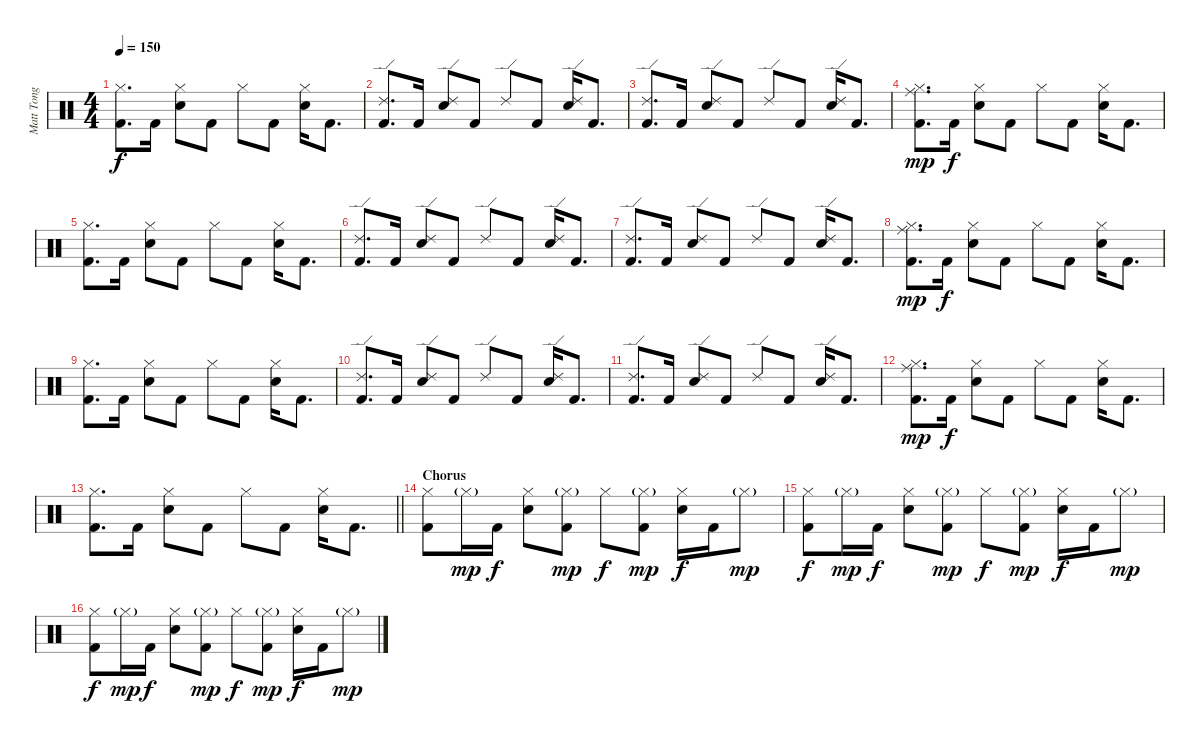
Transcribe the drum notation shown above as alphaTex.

\track ("Matt Tong" "Matt Tong") {instrument percussion}
\staff {score}
\articulation defaults
\ts (4 4)
\tempo 150
\clef neutral
\ks c
("Hi-Hat (closed)" "Kick (hit) 2").8{d dy f} "Kick (hit) 2".16 ("Hi-Hat (closed)" "Electric Snare (hit)").8 "Kick (hit) 2".8 "Hi-Hat (closed)".8 "Kick (hit) 2".8 ("Hi-Hat (closed)" "Electric Snare (hit)").16 "Kick (hit) 2".8{d} |
("Ride (edge) 2" "Kick (hit) 2").8{d} "Kick (hit) 2".16 ("Ride (edge) 2" "Electric Snare (hit)").8 "Kick (hit) 2".8 "Ride (edge) 2".8 "Kick (hit) 2".8 ("Ride (edge) 2" "Electric Snare (hit)").16 "Kick (hit) 2".8{d} |
("Ride (edge) 2" "Kick (hit) 2").8{d} "Kick (hit) 2".16 ("Ride (edge) 2" "Electric Snare (hit)").8 "Kick (hit) 2".8 "Ride (edge) 2".8 "Kick (hit) 2".8 ("Ride (edge) 2" "Electric Snare (hit)").16 "Kick (hit) 2".8{d} |
("Ride (middle)" "Hi-Hat (closed)" "Kick (hit) 2").8{d dy mp} "Kick (hit) 2".16{dy f} ("Hi-Hat (closed)" "Electric Snare (hit)").8 "Kick (hit) 2".8 "Hi-Hat (closed)".8 "Kick (hit) 2".8 ("Hi-Hat (closed)" "Electric Snare (hit)").16 "Kick (hit) 2".8{d} |
("Hi-Hat (closed)" "Kick (hit) 2").8{d} "Kick (hit) 2".16 ("Hi-Hat (closed)" "Electric Snare (hit)").8 "Kick (hit) 2".8 "Hi-Hat (closed)".8 "Kick (hit) 2".8 ("Hi-Hat (closed)" "Electric Snare (hit)").16 "Kick (hit) 2".8{d} |
("Ride (edge) 2" "Kick (hit) 2").8{d} "Kick (hit) 2".16 ("Ride (edge) 2" "Electric Snare (hit)").8 "Kick (hit) 2".8 "Ride (edge) 2".8 "Kick (hit) 2".8 ("Ride (edge) 2" "Electric Snare (hit)").16 "Kick (hit) 2".8{d} |
("Ride (edge) 2" "Kick (hit) 2").8{d} "Kick (hit) 2".16 ("Ride (edge) 2" "Electric Snare (hit)").8 "Kick (hit) 2".8 "Ride (edge) 2".8 "Kick (hit) 2".8 ("Ride (edge) 2" "Electric Snare (hit)").16 "Kick (hit) 2".8{d} |
("Ride (middle)" "Hi-Hat (closed)" "Kick (hit) 2").8{d dy mp} "Kick (hit) 2".16{dy f} ("Hi-Hat (closed)" "Electric Snare (hit)").8 "Kick (hit) 2".8 "Hi-Hat (closed)".8 "Kick (hit) 2".8 ("Hi-Hat (closed)" "Electric Snare (hit)").16 "Kick (hit) 2".8{d} |
("Hi-Hat (closed)" "Kick (hit) 2").8{d} "Kick (hit) 2".16 ("Hi-Hat (closed)" "Electric Snare (hit)").8 "Kick (hit) 2".8 "Hi-Hat (closed)".8 "Kick (hit) 2".8 ("Hi-Hat (closed)" "Electric Snare (hit)").16 "Kick (hit) 2".8{d} |
("Ride (edge) 2" "Kick (hit) 2").8{d} "Kick (hit) 2".16 ("Ride (edge) 2" "Electric Snare (hit)").8 "Kick (hit) 2".8 "Ride (edge) 2".8 "Kick (hit) 2".8 ("Ride (edge) 2" "Electric Snare (hit)").16 "Kick (hit) 2".8{d} |
("Ride (edge) 2" "Kick (hit) 2").8{d} "Kick (hit) 2".16 ("Ride (edge) 2" "Electric Snare (hit)").8 "Kick (hit) 2".8 "Ride (edge) 2".8 "Kick (hit) 2".8 ("Ride (edge) 2" "Electric Snare (hit)").16 "Kick (hit) 2".8{d} |
("Ride (middle)" "Hi-Hat (closed)" "Kick (hit) 2").8{d dy mp} "Kick (hit) 2".16{dy f} ("Hi-Hat (closed)" "Electric Snare (hit)").8 "Kick (hit) 2".8 "Hi-Hat (closed)".8 "Kick (hit) 2".8 ("Hi-Hat (closed)" "Electric Snare (hit)").16 "Kick (hit) 2".8{d} |
\barLineRight lightlight
("Hi-Hat (closed)" "Kick (hit) 2").8{d} "Kick (hit) 2".16 ("Hi-Hat (closed)" "Electric Snare (hit)").8 "Kick (hit) 2".8 "Hi-Hat (closed)".8 "Kick (hit) 2".8 ("Hi-Hat (closed)" "Electric Snare (hit)").16 "Kick (hit) 2".8{d} |
\section ("" "Chorus")
("Hi-Hat (closed)" "Kick (hit) 2").8 "Hi-Hat (closed)"{g}.16{dy mp} "Kick (hit) 2".16{dy f} ("Hi-Hat (closed)" "Electric Snare (hit)").8 ("Hi-Hat (closed)"{g} "Kick (hit) 2").8{dy mp} "Hi-Hat (closed)".8{dy f} ("Hi-Hat (closed)"{g} "Kick (hit) 2").8{dy mp} ("Hi-Hat (closed)" "Electric Snare (hit)").16{dy f} "Kick (hit) 2".16 "Hi-Hat (closed)"{g}.8{dy mp} |
("Hi-Hat (closed)" "Kick (hit) 2").8{dy f} "Hi-Hat (closed)"{g}.16{dy mp} "Kick (hit) 2".16{dy f} ("Hi-Hat (closed)" "Electric Snare (hit)").8 ("Hi-Hat (closed)"{g} "Kick (hit) 2").8{dy mp} "Hi-Hat (closed)".8{dy f} ("Hi-Hat (closed)"{g} "Kick (hit) 2").8{dy mp} ("Hi-Hat (closed)" "Electric Snare (hit)").16{dy f} "Kick (hit) 2".16 "Hi-Hat (closed)"{g}.8{dy mp} |
("Hi-Hat (closed)" "Kick (hit) 2").8{dy f} "Hi-Hat (closed)"{g}.16{dy mp} "Kick (hit) 2".16{dy f} ("Hi-Hat (closed)" "Electric Snare (hit)").8 ("Hi-Hat (closed)"{g} "Kick (hit) 2").8{dy mp} "Hi-Hat (closed)".8{dy f} ("Hi-Hat (closed)"{g} "Kick (hit) 2").8{dy mp} ("Hi-Hat (closed)" "Electric Snare (hit)").16{dy f} "Kick (hit) 2".16 "Hi-Hat (closed)"{g}.8{dy mp}
